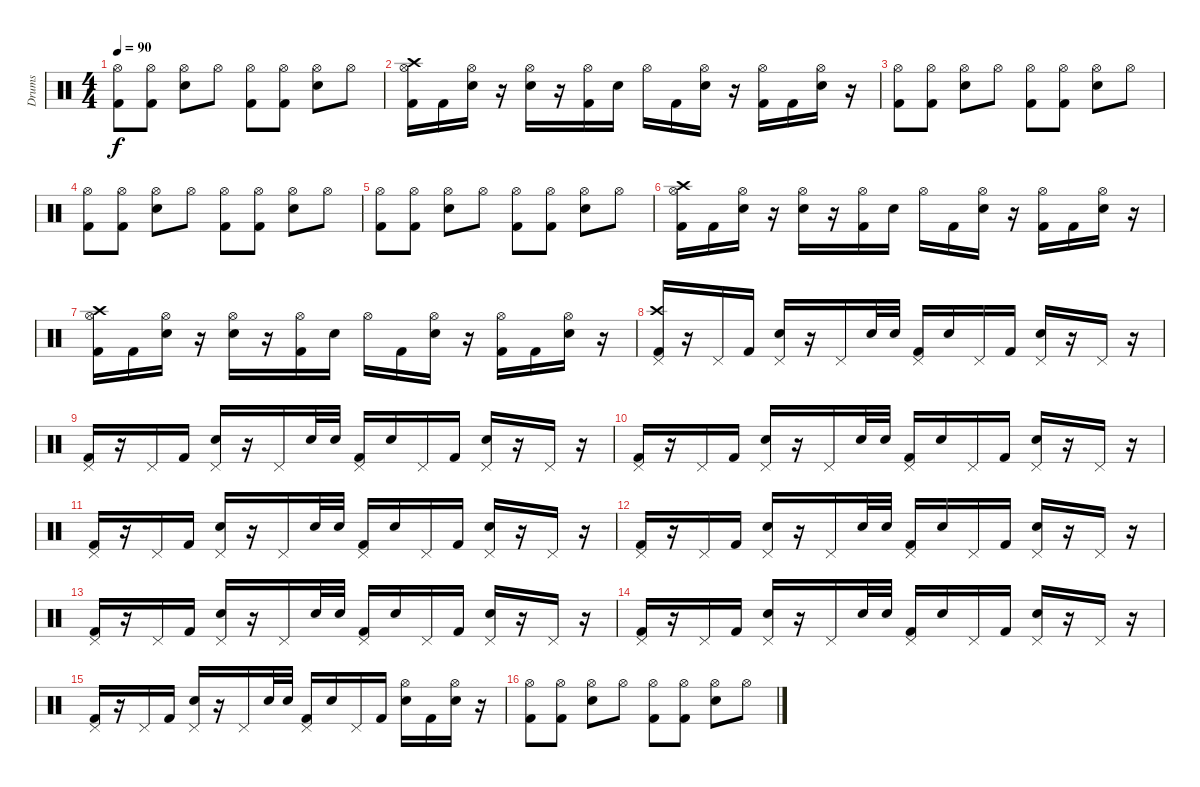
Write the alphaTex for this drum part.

\track ("Drums" "Drums") {instrument percussion}
\staff {score}
\articulation defaults
\ts (4 4)
\tempo 90
\clef neutral
\ks c
("Hi-Hat (open)" "Kick (hit) 2").8{dy f} ("Hi-Hat (open)" "Kick (hit) 2").8 ("Hi-Hat (open)" "Electric Snare (hit)").8 "Hi-Hat (open)".8 ("Hi-Hat (open)" "Kick (hit) 2").8 ("Hi-Hat (open)" "Kick (hit) 2").8 ("Hi-Hat (open)" "Electric Snare (hit)").8 "Hi-Hat (open)".8 |
("Crash high (hit)" "Hi-Hat (open)" "Kick (hit) 2").16 "Kick (hit) 2".16 ("Hi-Hat (open)" "Electric Snare (hit)").16 r.16 ("Hi-Hat (open)" "Electric Snare (hit)").16 r.16 ("Hi-Hat (open)" "Kick (hit) 2").16 "Electric Snare (hit)".16 "Hi-Hat (open)".16 "Kick (hit) 2".16 ("Hi-Hat (open)" "Electric Snare (hit)").16 r.16 ("Hi-Hat (open)" "Kick (hit) 2").16 "Kick (hit) 2".16 ("Hi-Hat (open)" "Electric Snare (hit)").16 r.16 |
("Hi-Hat (open)" "Kick (hit) 2").8 ("Hi-Hat (open)" "Kick (hit) 2").8 ("Hi-Hat (open)" "Electric Snare (hit)").8 "Hi-Hat (open)".8 ("Hi-Hat (open)" "Kick (hit) 2").8 ("Hi-Hat (open)" "Kick (hit) 2").8 ("Hi-Hat (open)" "Electric Snare (hit)").8 "Hi-Hat (open)".8 |
("Hi-Hat (open)" "Kick (hit) 2").8 ("Hi-Hat (open)" "Kick (hit) 2").8 ("Hi-Hat (open)" "Electric Snare (hit)").8 "Hi-Hat (open)".8 ("Hi-Hat (open)" "Kick (hit) 2").8 ("Hi-Hat (open)" "Kick (hit) 2").8 ("Hi-Hat (open)" "Electric Snare (hit)").8 "Hi-Hat (open)".8 |
("Hi-Hat (open)" "Kick (hit) 2").8 ("Hi-Hat (open)" "Kick (hit) 2").8 ("Hi-Hat (open)" "Electric Snare (hit)").8 "Hi-Hat (open)".8 ("Hi-Hat (open)" "Kick (hit) 2").8 ("Hi-Hat (open)" "Kick (hit) 2").8 ("Hi-Hat (open)" "Electric Snare (hit)").8 "Hi-Hat (open)".8 |
("Crash high (hit)" "Hi-Hat (open)" "Kick (hit) 2").16 "Kick (hit) 2".16 ("Hi-Hat (open)" "Electric Snare (hit)").16 r.16 ("Hi-Hat (open)" "Electric Snare (hit)").16 r.16 ("Hi-Hat (open)" "Kick (hit) 2").16 "Electric Snare (hit)".16 "Hi-Hat (open)".16 "Kick (hit) 2".16 ("Hi-Hat (open)" "Electric Snare (hit)").16 r.16 ("Hi-Hat (open)" "Kick (hit) 2").16 "Kick (hit) 2".16 ("Hi-Hat (open)" "Electric Snare (hit)").16 r.16 |
("Crash high (hit)" "Hi-Hat (open)" "Kick (hit) 2").16 "Kick (hit) 2".16 ("Hi-Hat (open)" "Electric Snare (hit)").16 r.16 ("Hi-Hat (open)" "Electric Snare (hit)").16 r.16 ("Hi-Hat (open)" "Kick (hit) 2").16 "Electric Snare (hit)".16 "Hi-Hat (open)".16 "Kick (hit) 2".16 ("Hi-Hat (open)" "Electric Snare (hit)").16 r.16 ("Hi-Hat (open)" "Kick (hit) 2").16 "Kick (hit) 2".16 ("Hi-Hat (open)" "Electric Snare (hit)").16 r.16 |
("Crash high (hit)" "Pedal Hi-Hat (hit)" "Kick (hit) 2").16 r.16 "Pedal Hi-Hat (hit)".16 "Kick (hit) 2".16 ("Pedal Hi-Hat (hit)" "Electric Snare (hit)").16 r.16 "Pedal Hi-Hat (hit)".16 "Electric Snare (hit)".32 "Electric Snare (hit)".32 ("Pedal Hi-Hat (hit)" "Kick (hit) 2").16 "Electric Snare (hit)".16 "Pedal Hi-Hat (hit)".16 "Kick (hit) 2".16 ("Pedal Hi-Hat (hit)" "Electric Snare (hit)").16 r.16 "Pedal Hi-Hat (hit)".16 r.16 |
("Pedal Hi-Hat (hit)" "Kick (hit) 2").16 r.16 "Pedal Hi-Hat (hit)".16 "Kick (hit) 2".16 ("Pedal Hi-Hat (hit)" "Electric Snare (hit)").16 r.16 "Pedal Hi-Hat (hit)".16 "Electric Snare (hit)".32 "Electric Snare (hit)".32 ("Pedal Hi-Hat (hit)" "Kick (hit) 2").16 "Electric Snare (hit)".16 "Pedal Hi-Hat (hit)".16 "Kick (hit) 2".16 ("Pedal Hi-Hat (hit)" "Electric Snare (hit)").16 r.16 "Pedal Hi-Hat (hit)".16 r.16 |
("Pedal Hi-Hat (hit)" "Kick (hit) 2").16 r.16 "Pedal Hi-Hat (hit)".16 "Kick (hit) 2".16 ("Pedal Hi-Hat (hit)" "Electric Snare (hit)").16 r.16 "Pedal Hi-Hat (hit)".16 "Electric Snare (hit)".32 "Electric Snare (hit)".32 ("Pedal Hi-Hat (hit)" "Kick (hit) 2").16 "Electric Snare (hit)".16 "Pedal Hi-Hat (hit)".16 "Kick (hit) 2".16 ("Pedal Hi-Hat (hit)" "Electric Snare (hit)").16 r.16 "Pedal Hi-Hat (hit)".16 r.16 |
("Pedal Hi-Hat (hit)" "Kick (hit) 2").16 r.16 "Pedal Hi-Hat (hit)".16 "Kick (hit) 2".16 ("Pedal Hi-Hat (hit)" "Electric Snare (hit)").16 r.16 "Pedal Hi-Hat (hit)".16 "Electric Snare (hit)".32 "Electric Snare (hit)".32 ("Pedal Hi-Hat (hit)" "Kick (hit) 2").16 "Electric Snare (hit)".16 "Pedal Hi-Hat (hit)".16 "Kick (hit) 2".16 ("Pedal Hi-Hat (hit)" "Electric Snare (hit)").16 r.16 "Pedal Hi-Hat (hit)".16 r.16 |
("Pedal Hi-Hat (hit)" "Kick (hit) 2").16 r.16 "Pedal Hi-Hat (hit)".16 "Kick (hit) 2".16 ("Pedal Hi-Hat (hit)" "Electric Snare (hit)").16 r.16 "Pedal Hi-Hat (hit)".16 "Electric Snare (hit)".32 "Electric Snare (hit)".32 ("Pedal Hi-Hat (hit)" "Kick (hit) 2").16 "Electric Snare (hit)".16 "Pedal Hi-Hat (hit)".16 "Kick (hit) 2".16 ("Pedal Hi-Hat (hit)" "Electric Snare (hit)").16 r.16 "Pedal Hi-Hat (hit)".16 r.16 |
("Pedal Hi-Hat (hit)" "Kick (hit) 2").16 r.16 "Pedal Hi-Hat (hit)".16 "Kick (hit) 2".16 ("Pedal Hi-Hat (hit)" "Electric Snare (hit)").16 r.16 "Pedal Hi-Hat (hit)".16 "Electric Snare (hit)".32 "Electric Snare (hit)".32 ("Pedal Hi-Hat (hit)" "Kick (hit) 2").16 "Electric Snare (hit)".16 "Pedal Hi-Hat (hit)".16 "Kick (hit) 2".16 ("Pedal Hi-Hat (hit)" "Electric Snare (hit)").16 r.16 "Pedal Hi-Hat (hit)".16 r.16 |
("Pedal Hi-Hat (hit)" "Kick (hit) 2").16 r.16 "Pedal Hi-Hat (hit)".16 "Kick (hit) 2".16 ("Pedal Hi-Hat (hit)" "Electric Snare (hit)").16 r.16 "Pedal Hi-Hat (hit)".16 "Electric Snare (hit)".32 "Electric Snare (hit)".32 ("Pedal Hi-Hat (hit)" "Kick (hit) 2").16 "Electric Snare (hit)".16 "Pedal Hi-Hat (hit)".16 "Kick (hit) 2".16 ("Pedal Hi-Hat (hit)" "Electric Snare (hit)").16 r.16 "Pedal Hi-Hat (hit)".16 r.16 |
("Pedal Hi-Hat (hit)" "Kick (hit) 2").16 r.16 "Pedal Hi-Hat (hit)".16 "Kick (hit) 2".16 ("Pedal Hi-Hat (hit)" "Electric Snare (hit)").16 r.16 "Pedal Hi-Hat (hit)".16 "Electric Snare (hit)".32 "Electric Snare (hit)".32 ("Pedal Hi-Hat (hit)" "Kick (hit) 2").16 "Electric Snare (hit)".16 "Pedal Hi-Hat (hit)".16 "Kick (hit) 2".16 ("Hi-Hat (open)" "Electric Snare (hit)").16 "Kick (hit) 2".16 ("Hi-Hat (open)" "Electric Snare (hit)").16 r.16 |
("Hi-Hat (open)" "Kick (hit) 2").8 ("Hi-Hat (open)" "Kick (hit) 2").8 ("Hi-Hat (open)" "Electric Snare (hit)").8 "Hi-Hat (open)".8 ("Hi-Hat (open)" "Kick (hit) 2").8 ("Hi-Hat (open)" "Kick (hit) 2").8 ("Hi-Hat (open)" "Electric Snare (hit)").8 "Hi-Hat (open)".8
